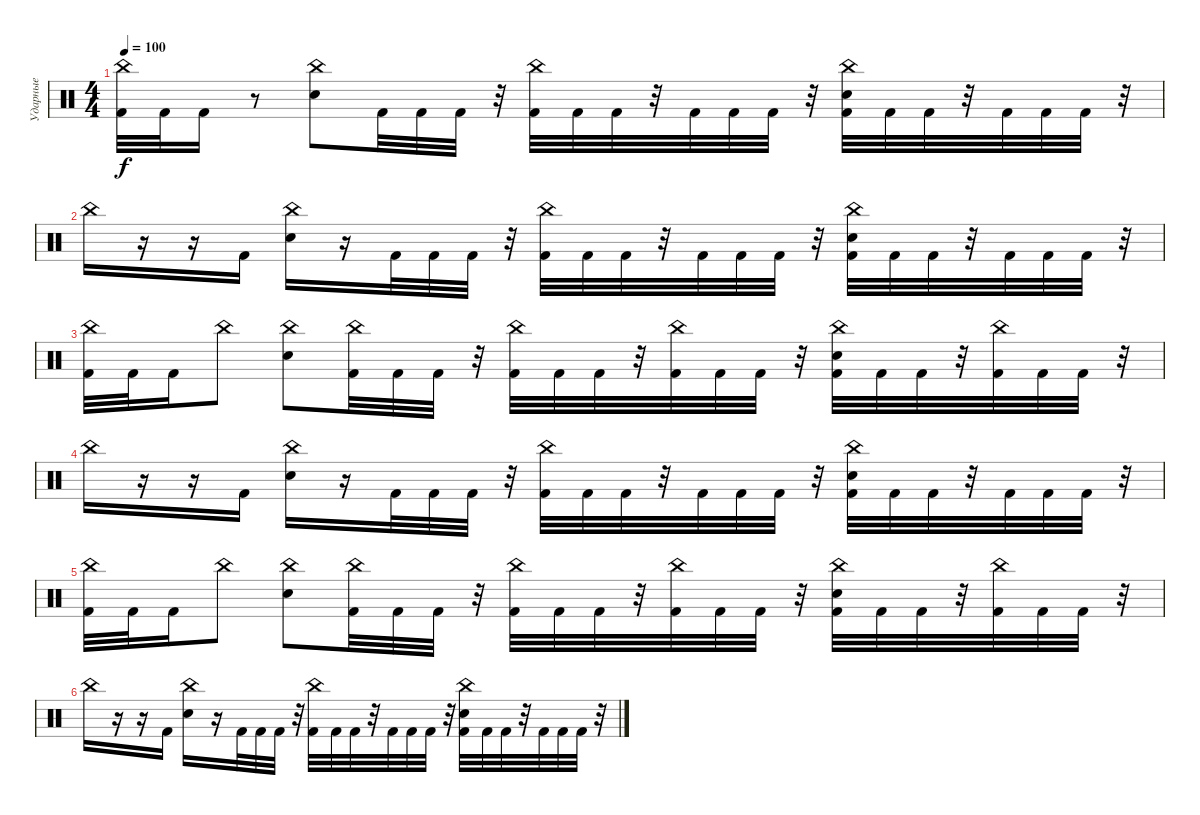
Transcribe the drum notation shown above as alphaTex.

\track ("Ударные" "Ударные") {instrument percussion}
\staff {score}
\articulation defaults
\ts (4 4)
\tempo 100
\clef neutral
\ks c
("China (hit)" "Kick (hit) 2").32{dy f} "Kick (hit) 2".32 "Kick (hit) 2".16 r.8 ("China (hit)" "Electric Snare (hit)").8 "Kick (hit) 2".32 "Kick (hit) 2".32 "Kick (hit) 2".32 r.32 ("China (hit)" "Kick (hit) 2").32 "Kick (hit) 2".32 "Kick (hit) 2".32 r.32 "Kick (hit) 2".32 "Kick (hit) 2".32 "Kick (hit) 2".32 r.32 ("China (hit)" "Electric Snare (hit)" "Kick (hit) 2").32 "Kick (hit) 2".32 "Kick (hit) 2".32 r.32 "Kick (hit) 2".32 "Kick (hit) 2".32 "Kick (hit) 2".32 r.32 |
"China (hit)".16 r.16 r.16 "Kick (hit) 2".16 ("China (hit)" "Electric Snare (hit)").16 r.16 "Kick (hit) 2".32 "Kick (hit) 2".32 "Kick (hit) 2".32 r.32 ("China (hit)" "Kick (hit) 2").32 "Kick (hit) 2".32 "Kick (hit) 2".32 r.32 "Kick (hit) 2".32 "Kick (hit) 2".32 "Kick (hit) 2".32 r.32 ("China (hit)" "Electric Snare (hit)" "Kick (hit) 2").32 "Kick (hit) 2".32 "Kick (hit) 2".32 r.32 "Kick (hit) 2".32 "Kick (hit) 2".32 "Kick (hit) 2".32 r.32 |
("China (hit)" "Kick (hit) 2").32 "Kick (hit) 2".32 "Kick (hit) 2".16 "China (hit)".8 ("China (hit)" "Electric Snare (hit)").8 ("China (hit)" "Kick (hit) 2").32 "Kick (hit) 2".32 "Kick (hit) 2".32 r.32 ("China (hit)" "Kick (hit) 2").32 "Kick (hit) 2".32 "Kick (hit) 2".32 r.32 ("China (hit)" "Kick (hit) 2").32 "Kick (hit) 2".32 "Kick (hit) 2".32 r.32 ("China (hit)" "Electric Snare (hit)" "Kick (hit) 2").32 "Kick (hit) 2".32 "Kick (hit) 2".32 r.32 ("China (hit)" "Kick (hit) 2").32 "Kick (hit) 2".32 "Kick (hit) 2".32 r.32 |
"China (hit)".16 r.16 r.16 "Kick (hit) 2".16 ("China (hit)" "Electric Snare (hit)").16 r.16 "Kick (hit) 2".32 "Kick (hit) 2".32 "Kick (hit) 2".32 r.32 ("China (hit)" "Kick (hit) 2").32 "Kick (hit) 2".32 "Kick (hit) 2".32 r.32 "Kick (hit) 2".32 "Kick (hit) 2".32 "Kick (hit) 2".32 r.32 ("China (hit)" "Electric Snare (hit)" "Kick (hit) 2").32 "Kick (hit) 2".32 "Kick (hit) 2".32 r.32 "Kick (hit) 2".32 "Kick (hit) 2".32 "Kick (hit) 2".32 r.32 |
("China (hit)" "Kick (hit) 2").32 "Kick (hit) 2".32 "Kick (hit) 2".16 "China (hit)".8 ("China (hit)" "Electric Snare (hit)").8 ("China (hit)" "Kick (hit) 2").32 "Kick (hit) 2".32 "Kick (hit) 2".32 r.32 ("China (hit)" "Kick (hit) 2").32 "Kick (hit) 2".32 "Kick (hit) 2".32 r.32 ("China (hit)" "Kick (hit) 2").32 "Kick (hit) 2".32 "Kick (hit) 2".32 r.32 ("China (hit)" "Electric Snare (hit)" "Kick (hit) 2").32 "Kick (hit) 2".32 "Kick (hit) 2".32 r.32 ("China (hit)" "Kick (hit) 2").32 "Kick (hit) 2".32 "Kick (hit) 2".32 r.32 |
"China (hit)".16 r.16 r.16 "Kick (hit) 2".16 ("China (hit)" "Electric Snare (hit)").16 r.16 "Kick (hit) 2".32 "Kick (hit) 2".32 "Kick (hit) 2".32 r.32 ("China (hit)" "Kick (hit) 2").32 "Kick (hit) 2".32 "Kick (hit) 2".32 r.32 "Kick (hit) 2".32 "Kick (hit) 2".32 "Kick (hit) 2".32 r.32 ("China (hit)" "Electric Snare (hit)" "Kick (hit) 2").32 "Kick (hit) 2".32 "Kick (hit) 2".32 r.32 "Kick (hit) 2".32 "Kick (hit) 2".32 "Kick (hit) 2".32 r.32
